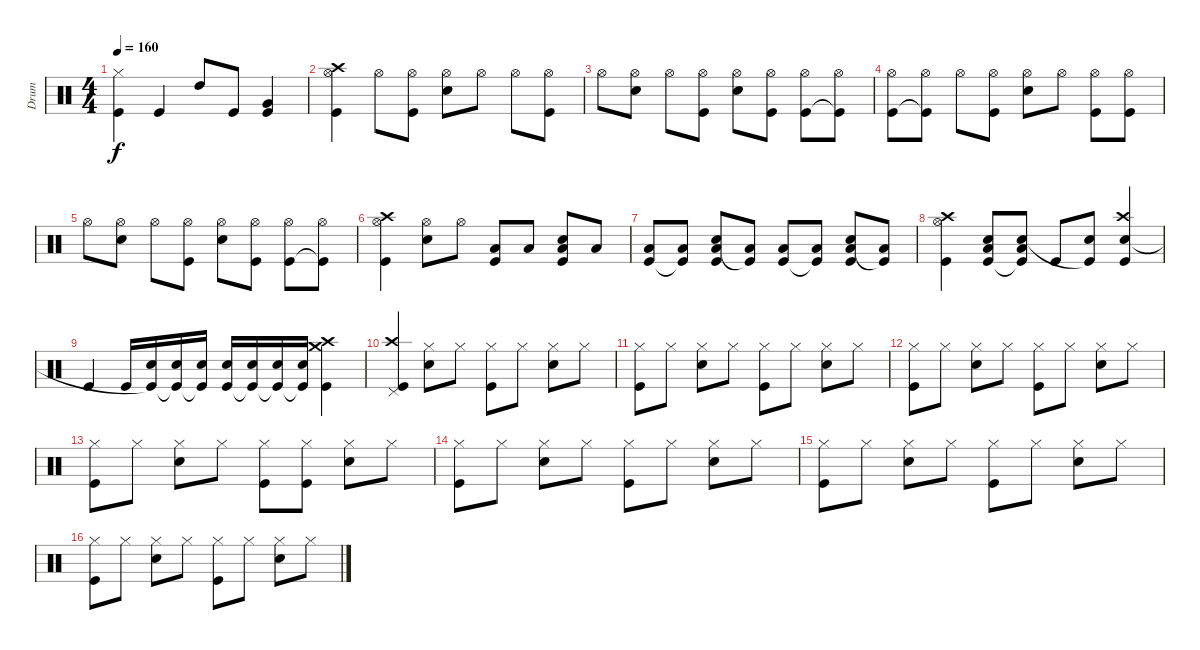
\track ("Drum" "Drum") {instrument percussion}
\staff {score}
\articulation defaults
\ts (4 4)
\tempo 160
\clef neutral
\ks c
("Hi-Hat (closed)" "Kick (hit)").4{dy f} "Kick (hit)".4 "High Tom (hit)".8 "Kick (hit)".8 ("Very Low Tom (hit)" "Kick (hit)").4 |
("Hi-Hat (open)" "Crash high (hit)" "Kick (hit)").4 "Hi-Hat (open)".8 ("Hi-Hat (open)" "Kick (hit)").8 ("Hi-Hat (open)" "Snare (hit) 2").8 "Hi-Hat (open)".8 "Hi-Hat (open)".8 ("Hi-Hat (open)" "Kick (hit)").8 |
"Hi-Hat (open)".8 ("Hi-Hat (open)" "Snare (hit) 2").8 "Hi-Hat (open)".8 ("Hi-Hat (open)" "Kick (hit)").8 ("Hi-Hat (open)" "Snare (hit) 2").8 ("Hi-Hat (open)" "Kick (hit)").8 ("Hi-Hat (open)" "Kick (hit)").8 ("Hi-Hat (open)" "Kick (hit)"{t}).8 |
("Hi-Hat (open)" "Kick (hit)").8 ("Hi-Hat (open)" "Kick (hit)"{t}).8 "Hi-Hat (open)".8 ("Hi-Hat (open)" "Kick (hit)").8 ("Hi-Hat (open)" "Snare (hit) 2").8 "Hi-Hat (open)".8 ("Hi-Hat (open)" "Kick (hit)").8 ("Hi-Hat (open)" "Kick (hit)").8 |
"Hi-Hat (open)".8 ("Hi-Hat (open)" "Snare (hit) 2").8 "Hi-Hat (open)".8 ("Hi-Hat (open)" "Kick (hit)").8 ("Hi-Hat (open)" "Snare (hit) 2").8 ("Hi-Hat (open)" "Kick (hit)").8 ("Hi-Hat (open)" "Kick (hit)").8 ("Hi-Hat (open)" "Kick (hit)"{t}).8 |
("Hi-Hat (open)" "Crash high (hit)" "Kick (hit)").4 ("Hi-Hat (open)" "Snare (hit) 2").8 "Hi-Hat (open)".8 ("Low Floor Tom (hit)" "Kick (hit)").8 "Low Floor Tom (hit)".8 ("Snare (hit) 2" "Low Floor Tom (hit)" "Kick (hit)").8 "Low Floor Tom (hit)".8 |
("Low Floor Tom (hit)" "Kick (hit)").8 ("Low Floor Tom (hit)" "Kick (hit)"{t}).8 ("Snare (hit) 2" "Low Floor Tom (hit)" "Kick (hit)").8 ("Low Floor Tom (hit)" "Kick (hit)"{t}).8 ("Low Floor Tom (hit)" "Kick (hit)").8 ("Low Floor Tom (hit)" "Kick (hit)"{t}).8 ("Snare (hit) 2" "Low Floor Tom (hit)" "Kick (hit)").8 ("Low Floor Tom (hit)" "Kick (hit)"{t}).8 |
("Hi-Hat (open)" "Crash high (hit)" "Kick (hit)").4 ("Low Floor Tom (hit)" "Snare (hit) 2" "Kick (hit)").8 ("Low Floor Tom (hit)" "Snare (hit) 2" "Kick (hit)"{t}).8 "Kick (hit)".8 ("Snare (hit) 2" "Kick (hit)"{t}).8 ("Crash high (hit)" "Snare (hit) 2" "Kick (hit)").4 |
"Kick (hit)".4 "Kick (hit)".16 ("Snare (hit) 2" "Kick (hit)"{t}).16 ("Snare (hit) 2" "Kick (hit)"{t}).16 ("Snare (hit) 2" "Kick (hit)"{t}).16 ("Snare (hit) 2" "Kick (hit)").16 ("Snare (hit) 2" "Kick (hit)"{t}).16 ("Snare (hit) 2" "Kick (hit)"{t}).16 ("Snare (hit) 2" "Kick (hit)"{t}).16 ("Crash high (hit)" "Crash medium (hit)" "Kick (hit)").4 |
("Crash high (hit)" "Pedal Hi-Hat (hit)" "Kick (hit)").4 ("Hi-Hat (closed)" "Snare (hit) 2").8 "Hi-Hat (closed)".8 ("Hi-Hat (closed)" "Kick (hit)").8 "Hi-Hat (closed)".8 ("Hi-Hat (closed)" "Snare (hit) 2").8 "Hi-Hat (closed)".8 |
("Hi-Hat (closed)" "Kick (hit)").8 "Hi-Hat (closed)".8 ("Hi-Hat (closed)" "Snare (hit) 2").8 "Hi-Hat (closed)".8 ("Hi-Hat (closed)" "Kick (hit)").8 "Hi-Hat (closed)".8 ("Hi-Hat (closed)" "Snare (hit) 2").8 "Hi-Hat (closed)".8 |
("Hi-Hat (closed)" "Kick (hit)").8 "Hi-Hat (closed)".8 ("Hi-Hat (closed)" "Snare (hit) 2").8 "Hi-Hat (closed)".8 ("Hi-Hat (closed)" "Kick (hit)").8 "Hi-Hat (closed)".8 ("Hi-Hat (closed)" "Snare (hit) 2").8 "Hi-Hat (closed)".8 |
("Hi-Hat (closed)" "Kick (hit)").8 "Hi-Hat (closed)".8 ("Hi-Hat (closed)" "Snare (hit) 2").8 "Hi-Hat (closed)".8 ("Hi-Hat (closed)" "Kick (hit)").8 ("Hi-Hat (closed)" "Kick (hit)").8 ("Hi-Hat (closed)" "Snare (hit) 2").8 "Hi-Hat (closed)".8 |
("Hi-Hat (closed)" "Kick (hit)").8 "Hi-Hat (closed)".8 ("Hi-Hat (closed)" "Snare (hit) 2").8 "Hi-Hat (closed)".8 ("Hi-Hat (closed)" "Kick (hit)").8 "Hi-Hat (closed)".8 ("Hi-Hat (closed)" "Snare (hit) 2").8 "Hi-Hat (closed)".8 |
("Hi-Hat (closed)" "Kick (hit)").8 "Hi-Hat (closed)".8 ("Hi-Hat (closed)" "Snare (hit) 2").8 "Hi-Hat (closed)".8 ("Hi-Hat (closed)" "Kick (hit)").8 "Hi-Hat (closed)".8 ("Hi-Hat (closed)" "Snare (hit) 2").8 "Hi-Hat (closed)".8 |
("Hi-Hat (closed)" "Kick (hit)").8 "Hi-Hat (closed)".8 ("Hi-Hat (closed)" "Snare (hit) 2").8 "Hi-Hat (closed)".8 ("Hi-Hat (closed)" "Kick (hit)").8 "Hi-Hat (closed)".8 ("Hi-Hat (closed)" "Snare (hit) 2").8 "Hi-Hat (closed)".8
